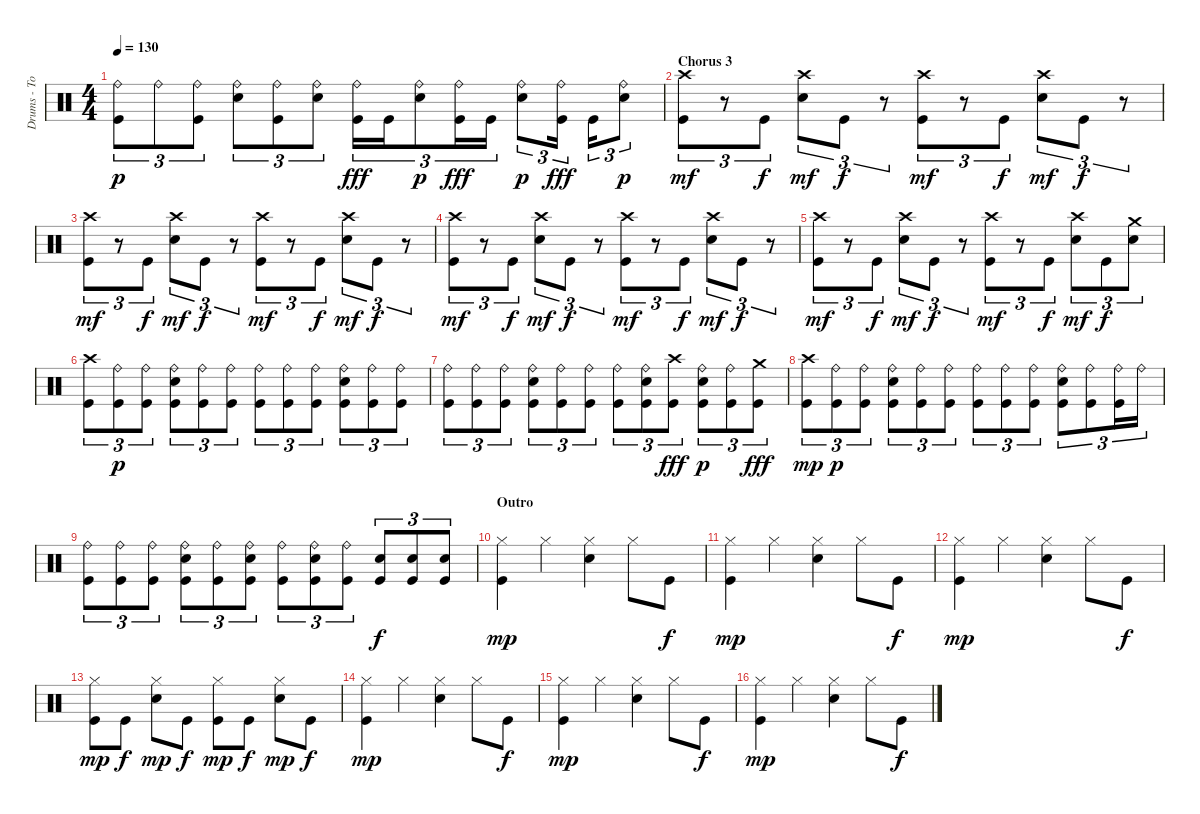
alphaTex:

\track ("Drums - Tomas" "Drums - To") {instrument percussion}
\staff {score}
\articulation defaults
\ts (4 4)
\tempo 130
\clef neutral
\ks c
("Ride (bell)" "Kick (hit)").8{tu (3 2) dy p} "Ride (bell)".8{tu (3 2)} ("Ride (bell)" "Kick (hit)").8{tu (3 2)} ("Ride (bell)" "Electric Snare (hit)").8{tu (3 2)} ("Ride (bell)" "Kick (hit)").8{tu (3 2)} ("Ride (bell)" "Electric Snare (hit)").8{tu (3 2)} ("Ride (bell)" "Kick (hit)").16{tu (3 2) dy fff} "Kick (hit)".16{tu (3 2)} ("Ride (bell)" "Electric Snare (hit)").8{tu (3 2) dy p} ("Ride (bell)" "Kick (hit)").16{tu (3 2) dy fff} "Kick (hit)".16{tu (3 2)} ("Ride (bell)" "Electric Snare (hit)").8{tu (3 2) dy p} ("Ride (bell)" "Kick (hit)").16{tu (3 2) dy fff} "Kick (hit)".16{tu (3 2)} ("Ride (bell)" "Electric Snare (hit)").8{tu (3 2) dy p} |
\section ("" "Chorus 3")
("Crash high (hit)" "Kick (hit)").8{tu (3 2) dy mf} r.8{tu (3 2)} "Kick (hit)".8{tu (3 2) dy f} ("Crash high (hit)" "Electric Snare (hit)").8{tu (3 2) dy mf} "Kick (hit)".8{tu (3 2) dy f} r.8{tu (3 2)} ("Crash high (hit)" "Kick (hit)").8{tu (3 2) dy mf} r.8{tu (3 2)} "Kick (hit)".8{tu (3 2) dy f} ("Crash high (hit)" "Electric Snare (hit)").8{tu (3 2) dy mf} "Kick (hit)".8{tu (3 2) dy f} r.8{tu (3 2)} |
("Crash high (hit)" "Kick (hit)").8{tu (3 2) dy mf} r.8{tu (3 2)} "Kick (hit)".8{tu (3 2) dy f} ("Crash high (hit)" "Electric Snare (hit)").8{tu (3 2) dy mf} "Kick (hit)".8{tu (3 2) dy f} r.8{tu (3 2)} ("Crash high (hit)" "Kick (hit)").8{tu (3 2) dy mf} r.8{tu (3 2)} "Kick (hit)".8{tu (3 2) dy f} ("Crash high (hit)" "Electric Snare (hit)").8{tu (3 2) dy mf} "Kick (hit)".8{tu (3 2) dy f} r.8{tu (3 2)} |
("Crash high (hit)" "Kick (hit)").8{tu (3 2) dy mf} r.8{tu (3 2)} "Kick (hit)".8{tu (3 2) dy f} ("Crash high (hit)" "Electric Snare (hit)").8{tu (3 2) dy mf} "Kick (hit)".8{tu (3 2) dy f} r.8{tu (3 2)} ("Crash high (hit)" "Kick (hit)").8{tu (3 2) dy mf} r.8{tu (3 2)} "Kick (hit)".8{tu (3 2) dy f} ("Crash high (hit)" "Electric Snare (hit)").8{tu (3 2) dy mf} "Kick (hit)".8{tu (3 2) dy f} r.8{tu (3 2)} |
("Crash high (hit)" "Kick (hit)").8{tu (3 2) dy mf} r.8{tu (3 2)} "Kick (hit)".8{tu (3 2) dy f} ("Crash high (hit)" "Electric Snare (hit)").8{tu (3 2) dy mf} "Kick (hit)".8{tu (3 2) dy f} r.8{tu (3 2)} ("Crash high (hit)" "Kick (hit)").8{tu (3 2) dy mf} r.8{tu (3 2)} "Kick (hit)".8{tu (3 2) dy f} ("Crash high (hit)" "Electric Snare (hit)").8{tu (3 2) dy mf} "Kick (hit)".8{tu (3 2) dy f} ("Crash medium (hit)" "Electric Snare (hit)").8{tu (3 2)} |
("Crash high (hit)" "Kick (hit)").8{tu (3 2)} ("Ride (bell)" "Kick (hit)").8{tu (3 2) dy p} ("Ride (bell)" "Kick (hit)").8{tu (3 2)} ("Ride (bell)" "Electric Snare (hit)" "Kick (hit)").8{tu (3 2)} ("Ride (bell)" "Kick (hit)").8{tu (3 2)} ("Ride (bell)" "Kick (hit)").8{tu (3 2)} ("Ride (bell)" "Kick (hit)").8{tu (3 2)} ("Ride (bell)" "Kick (hit)").8{tu (3 2)} ("Ride (bell)" "Kick (hit)").8{tu (3 2)} ("Ride (bell)" "Electric Snare (hit)" "Kick (hit)").8{tu (3 2)} ("Ride (bell)" "Kick (hit)").8{tu (3 2)} ("Ride (bell)" "Kick (hit)").8{tu (3 2)} |
("Ride (bell)" "Kick (hit)").8{tu (3 2)} ("Ride (bell)" "Kick (hit)").8{tu (3 2)} ("Ride (bell)" "Kick (hit)").8{tu (3 2)} ("Ride (bell)" "Electric Snare (hit)" "Kick (hit)").8{tu (3 2)} ("Ride (bell)" "Kick (hit)").8{tu (3 2)} ("Ride (bell)" "Kick (hit)").8{tu (3 2)} ("Ride (bell)" "Kick (hit)").8{tu (3 2)} ("Ride (bell)" "Electric Snare (hit)" "Kick (hit)").8{tu (3 2)} ("Crash high (hit)" "Kick (hit)").8{tu (3 2) dy fff} ("Ride (bell)" "Electric Snare (hit)" "Kick (hit)").8{tu (3 2) dy p} ("Ride (bell)" "Kick (hit)").8{tu (3 2)} ("Crash medium (hit)" "Kick (hit)").8{tu (3 2) dy fff} |
("Crash high (hit)" "Kick (hit)").8{tu (3 2) dy mp} ("Ride (bell)" "Kick (hit)").8{tu (3 2) dy p} ("Ride (bell)" "Kick (hit)").8{tu (3 2)} ("Ride (bell)" "Electric Snare (hit)" "Kick (hit)").8{tu (3 2)} ("Ride (bell)" "Kick (hit)").8{tu (3 2)} ("Ride (bell)" "Kick (hit)").8{tu (3 2)} ("Ride (bell)" "Kick (hit)").8{tu (3 2)} ("Ride (bell)" "Kick (hit)").8{tu (3 2)} ("Ride (bell)" "Kick (hit)").8{tu (3 2)} ("Ride (bell)" "Electric Snare (hit)" "Kick (hit)").8{tu (3 2)} ("Ride (bell)" "Kick (hit)").8{tu (3 2)} ("Ride (bell)" "Kick (hit)").16{tu (3 2)} "Ride (bell)".16{tu (3 2)} |
("Ride (bell)" "Kick (hit)").8{tu (3 2)} ("Ride (bell)" "Kick (hit)").8{tu (3 2)} ("Ride (bell)" "Kick (hit)").8{tu (3 2)} ("Ride (bell)" "Electric Snare (hit)" "Kick (hit)").8{tu (3 2)} ("Ride (bell)" "Kick (hit)").8{tu (3 2)} ("Ride (bell)" "Electric Snare (hit)" "Kick (hit)").8{tu (3 2)} ("Ride (bell)" "Kick (hit)").8{tu (3 2)} ("Ride (bell)" "Electric Snare (hit)" "Kick (hit)").8{tu (3 2)} ("Ride (bell)" "Kick (hit)").8{tu (3 2)} ("Electric Snare (hit)" "Kick (hit)").8{tu (3 2) dy f} ("Electric Snare (hit)" "Kick (hit)").8{tu (3 2)} ("Electric Snare (hit)" "Kick (hit)").8{tu (3 2)} |
\section ("" "Outro")
("Hi-Hat (closed)" "Kick (hit)").4{dy mp} "Hi-Hat (closed)".4 ("Hi-Hat (closed)" "Electric Snare (hit)").4 "Hi-Hat (closed)".8 "Kick (hit)".8{dy f} |
("Hi-Hat (closed)" "Kick (hit)").4{dy mp} "Hi-Hat (closed)".4 ("Hi-Hat (closed)" "Electric Snare (hit)").4 "Hi-Hat (closed)".8 "Kick (hit)".8{dy f} |
("Hi-Hat (closed)" "Kick (hit)").4{dy mp} "Hi-Hat (closed)".4 ("Hi-Hat (closed)" "Electric Snare (hit)").4 "Hi-Hat (closed)".8 "Kick (hit)".8{dy f} |
("Hi-Hat (closed)" "Kick (hit)").8{dy mp} "Kick (hit)".8{dy f} ("Hi-Hat (closed)" "Electric Snare (hit)").8{dy mp} "Kick (hit)".8{dy f} ("Hi-Hat (closed)" "Kick (hit)").8{dy mp} "Kick (hit)".8{dy f} ("Hi-Hat (closed)" "Electric Snare (hit)").8{dy mp} "Kick (hit)".8{dy f} |
("Hi-Hat (closed)" "Kick (hit)").4{dy mp} "Hi-Hat (closed)".4 ("Hi-Hat (closed)" "Electric Snare (hit)").4 "Hi-Hat (closed)".8 "Kick (hit)".8{dy f} |
("Hi-Hat (closed)" "Kick (hit)").4{dy mp} "Hi-Hat (closed)".4 ("Hi-Hat (closed)" "Electric Snare (hit)").4 "Hi-Hat (closed)".8 "Kick (hit)".8{dy f} |
("Hi-Hat (closed)" "Kick (hit)").4{dy mp} "Hi-Hat (closed)".4 ("Hi-Hat (closed)" "Electric Snare (hit)").4 "Hi-Hat (closed)".8 "Kick (hit)".8{dy f}
